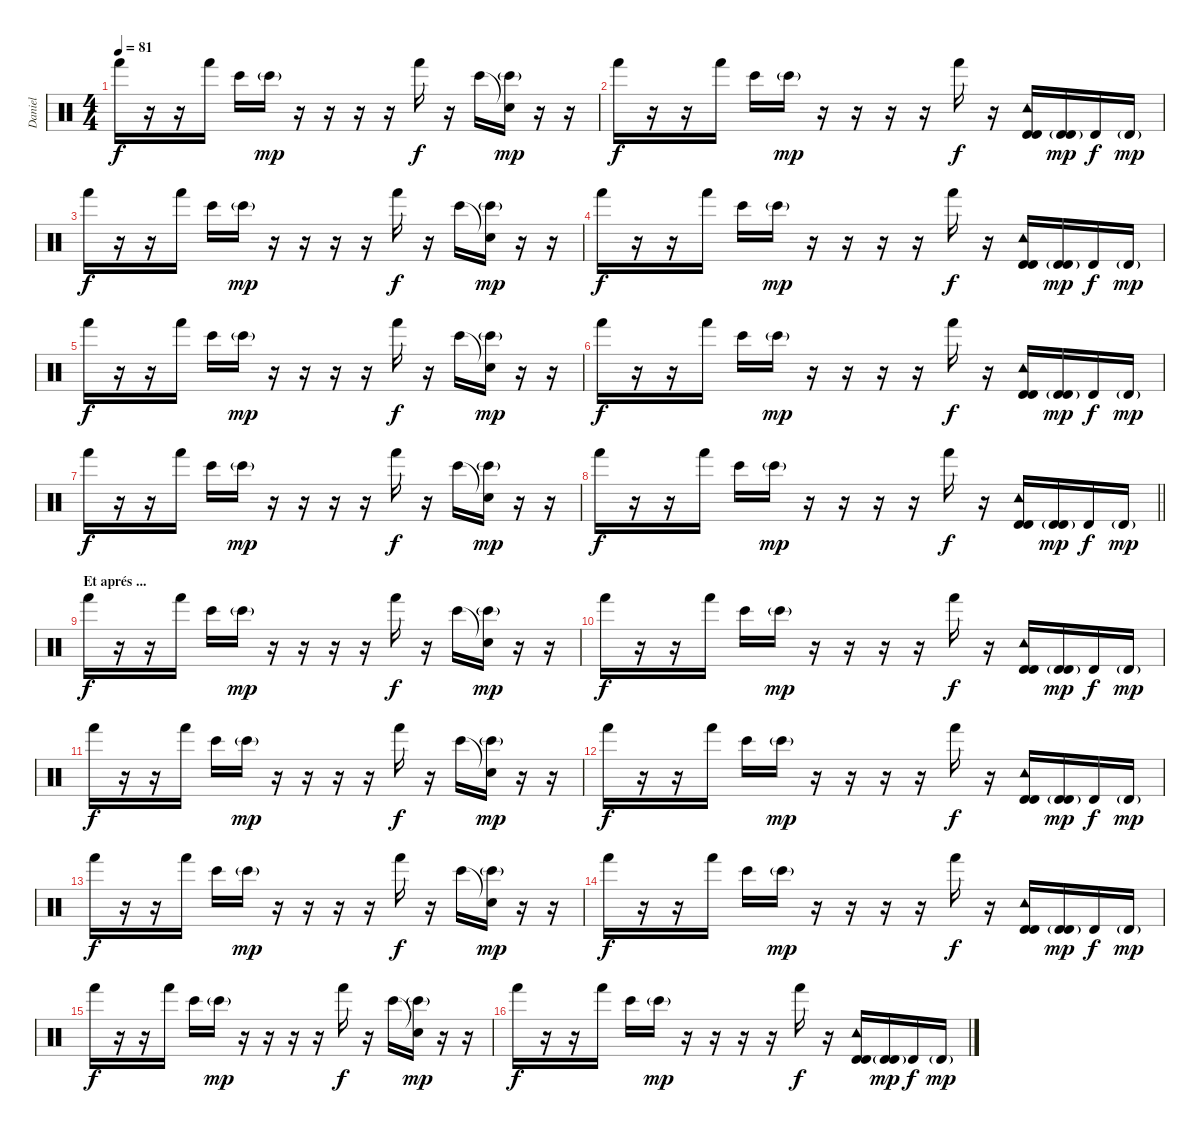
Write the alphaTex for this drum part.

\track ("Daniel" "Daniel") {instrument percussion}
\staff {score}
\articulation defaults
\ts (4 4)
\tempo 81
\clef neutral
\ks c "Hand (hit)".16{dy f}
r.16 r.16 "Hand (hit)".16 "Bongo High (hit)".16 "Bongo High (hit)"{g}.16{dy mp} r.16 r.16 r.16 r.16 "Hand (hit)".16{dy f} r.16 "Bongo High (hit)".16 ("Snare (hit)"{t} "Bongo High (hit)"{g}).16{dy mp} r.16 r.16 |
"Hand (hit)".16{dy f} r.16 r.16 "Hand (hit)".16 "Bongo High (hit)".16 "Bongo High (hit)"{g}.16{dy mp} r.16 r.16 r.16 r.16 "Hand (hit)".16{dy f} r.16 ("Tambourine (hit)" "Timbale high (hit)" "Timbale high (hit)").16 ("Timbale high (hit)"{g} "Timbale high (hit)").16{dy mp} "Timbale high (hit)".16{dy f} "Timbale high (hit)"{g}.16{dy mp} |
"Hand (hit)".16{dy f} r.16 r.16 "Hand (hit)".16 "Bongo High (hit)".16 "Bongo High (hit)"{g}.16{dy mp} r.16 r.16 r.16 r.16 "Hand (hit)".16{dy f} r.16 "Bongo High (hit)".16 ("Snare (hit)"{t} "Bongo High (hit)"{g}).16{dy mp} r.16 r.16 |
"Hand (hit)".16{dy f} r.16 r.16 "Hand (hit)".16 "Bongo High (hit)".16 "Bongo High (hit)"{g}.16{dy mp} r.16 r.16 r.16 r.16 "Hand (hit)".16{dy f} r.16 ("Tambourine (hit)" "Timbale high (hit)" "Timbale high (hit)").16 ("Timbale high (hit)"{g} "Timbale high (hit)").16{dy mp} "Timbale high (hit)".16{dy f} "Timbale high (hit)"{g}.16{dy mp} |
"Hand (hit)".16{dy f} r.16 r.16 "Hand (hit)".16 "Bongo High (hit)".16 "Bongo High (hit)"{g}.16{dy mp} r.16 r.16 r.16 r.16 "Hand (hit)".16{dy f} r.16 "Bongo High (hit)".16 ("Snare (hit)"{t} "Bongo High (hit)"{g}).16{dy mp} r.16 r.16 |
"Hand (hit)".16{dy f} r.16 r.16 "Hand (hit)".16 "Bongo High (hit)".16 "Bongo High (hit)"{g}.16{dy mp} r.16 r.16 r.16 r.16 "Hand (hit)".16{dy f} r.16 ("Tambourine (hit)" "Timbale high (hit)" "Timbale high (hit)").16 ("Timbale high (hit)"{g} "Timbale high (hit)").16{dy mp} "Timbale high (hit)".16{dy f} "Timbale high (hit)"{g}.16{dy mp} |
"Hand (hit)".16{dy f} r.16 r.16 "Hand (hit)".16 "Bongo High (hit)".16 "Bongo High (hit)"{g}.16{dy mp} r.16 r.16 r.16 r.16 "Hand (hit)".16{dy f} r.16 "Bongo High (hit)".16 ("Snare (hit)"{t} "Bongo High (hit)"{g}).16{dy mp} r.16 r.16 |
\barLineRight lightlight "Hand (hit)".16{dy f}
r.16 r.16 "Hand (hit)".16 "Bongo High (hit)".16 "Bongo High (hit)"{g}.16{dy mp} r.16 r.16 r.16 r.16 "Hand (hit)".16{dy f} r.16 ("Tambourine (hit)" "Timbale high (hit)" "Timbale high (hit)").16 ("Timbale high (hit)"{g} "Timbale high (hit)").16{dy mp} "Timbale high (hit)".16{dy f} "Timbale high (hit)"{g}.16{dy mp} |
\section ("" "Et aprés ...")
"Hand (hit)".16{dy f} r.16 r.16 "Hand (hit)".16 "Bongo High (hit)".16 "Bongo High (hit)"{g}.16{dy mp} r.16 r.16 r.16 r.16 "Hand (hit)".16{dy f} r.16 "Bongo High (hit)".16 ("Snare (hit)"{t} "Bongo High (hit)"{g}).16{dy mp} r.16 r.16 |
"Hand (hit)".16{dy f} r.16 r.16 "Hand (hit)".16 "Bongo High (hit)".16 "Bongo High (hit)"{g}.16{dy mp} r.16 r.16 r.16 r.16 "Hand (hit)".16{dy f} r.16 ("Tambourine (hit)" "Timbale high (hit)" "Timbale high (hit)").16 ("Timbale high (hit)"{g} "Timbale high (hit)").16{dy mp} "Timbale high (hit)".16{dy f} "Timbale high (hit)"{g}.16{dy mp} |
"Hand (hit)".16{dy f} r.16 r.16 "Hand (hit)".16 "Bongo High (hit)".16 "Bongo High (hit)"{g}.16{dy mp} r.16 r.16 r.16 r.16 "Hand (hit)".16{dy f} r.16 "Bongo High (hit)".16 ("Snare (hit)"{t} "Bongo High (hit)"{g}).16{dy mp} r.16 r.16 |
"Hand (hit)".16{dy f} r.16 r.16 "Hand (hit)".16 "Bongo High (hit)".16 "Bongo High (hit)"{g}.16{dy mp} r.16 r.16 r.16 r.16 "Hand (hit)".16{dy f} r.16 ("Tambourine (hit)" "Timbale high (hit)" "Timbale high (hit)").16 ("Timbale high (hit)"{g} "Timbale high (hit)").16{dy mp} "Timbale high (hit)".16{dy f} "Timbale high (hit)"{g}.16{dy mp} |
"Hand (hit)".16{dy f} r.16 r.16 "Hand (hit)".16 "Bongo High (hit)".16 "Bongo High (hit)"{g}.16{dy mp} r.16 r.16 r.16 r.16 "Hand (hit)".16{dy f} r.16 "Bongo High (hit)".16 ("Snare (hit)"{t} "Bongo High (hit)"{g}).16{dy mp} r.16 r.16 |
"Hand (hit)".16{dy f} r.16 r.16 "Hand (hit)".16 "Bongo High (hit)".16 "Bongo High (hit)"{g}.16{dy mp} r.16 r.16 r.16 r.16 "Hand (hit)".16{dy f} r.16 ("Tambourine (hit)" "Timbale high (hit)" "Timbale high (hit)").16 ("Timbale high (hit)"{g} "Timbale high (hit)").16{dy mp} "Timbale high (hit)".16{dy f} "Timbale high (hit)"{g}.16{dy mp} |
"Hand (hit)".16{dy f} r.16 r.16 "Hand (hit)".16 "Bongo High (hit)".16 "Bongo High (hit)"{g}.16{dy mp} r.16 r.16 r.16 r.16 "Hand (hit)".16{dy f} r.16 "Bongo High (hit)".16 ("Snare (hit)"{t} "Bongo High (hit)"{g}).16{dy mp} r.16 r.16 |
"Hand (hit)".16{dy f} r.16 r.16 "Hand (hit)".16 "Bongo High (hit)".16 "Bongo High (hit)"{g}.16{dy mp} r.16 r.16 r.16 r.16 "Hand (hit)".16{dy f} r.16 ("Tambourine (hit)" "Timbale high (hit)" "Timbale high (hit)").16 ("Timbale high (hit)"{g} "Timbale high (hit)").16{dy mp} "Timbale high (hit)".16{dy f} "Timbale high (hit)"{g}.16{dy mp}
